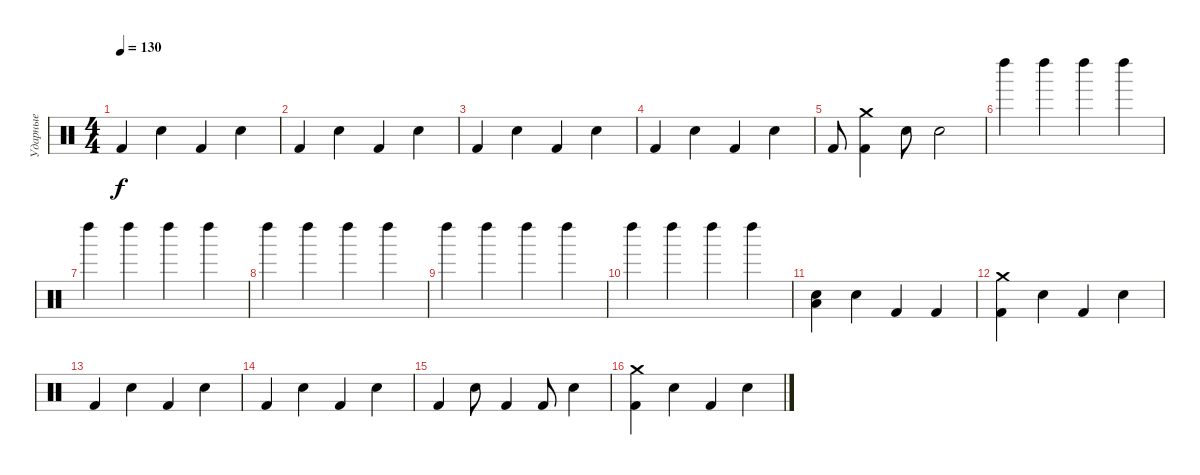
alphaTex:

\track ("Ударные" "Ударные") {instrument percussion}
\staff {score}
\articulation defaults
\ts (4 4)
\tempo 130
\clef neutral
\ks c "Kick (hit) 2".4{dy f} "Snare (hit) 2".4 "Kick (hit) 2".4 "Snare (hit) 2".4
|
"Kick (hit) 2".4 "Snare (hit) 2".4 "Kick (hit) 2".4 "Snare (hit) 2".4 |
"Kick (hit) 2".4 "Snare (hit) 2".4 "Kick (hit) 2".4 "Snare (hit) 2".4 |
"Kick (hit) 2".4 "Snare (hit) 2".4 "Kick (hit) 2".4 "Snare (hit) 2".4 |
"Kick (hit) 2".8 ("Kick (hit) 2" "Crash medium (hit)").4 "Snare (hit) 2".8 "Snare (hit) 2".2 |
"Left Maraca (hit)".4 "Left Maraca (hit)".4 "Left Maraca (hit)".4 "Left Maraca (hit)".4 |
"Left Maraca (hit)".4 "Left Maraca (hit)".4 "Left Maraca (hit)".4 "Left Maraca (hit)".4 |
"Left Maraca (hit)".4 "Left Maraca (hit)".4 "Left Maraca (hit)".4 "Left Maraca (hit)".4 |
"Left Maraca (hit)".4 "Left Maraca (hit)".4 "Left Maraca (hit)".4 "Left Maraca (hit)".4 |
"Left Maraca (hit)".4 "Left Maraca (hit)".4 "Left Maraca (hit)".4 "Left Maraca (hit)".4 |
("Electric Snare (hit)" "Low Floor Tom (hit)").4 "Snare (hit) 2".4 "Kick (hit) 2".4 "Kick (hit) 2".4 |
("Kick (hit) 2" "Crash medium (hit)").4 "Snare (hit) 2".4 "Kick (hit) 2".4 "Snare (hit) 2".4 |
"Kick (hit) 2".4 "Snare (hit) 2".4 "Kick (hit) 2".4 "Snare (hit) 2".4 |
"Kick (hit) 2".4 "Snare (hit) 2".4 "Kick (hit) 2".4 "Snare (hit) 2".4 |
"Kick (hit) 2".4 "Snare (hit) 2".8 "Kick (hit) 2".4 "Kick (hit) 2".8 "Snare (hit) 2".4 |
("Kick (hit) 2" "Crash medium (hit)").4 "Snare (hit) 2".4 "Kick (hit) 2".4 "Snare (hit) 2".4
